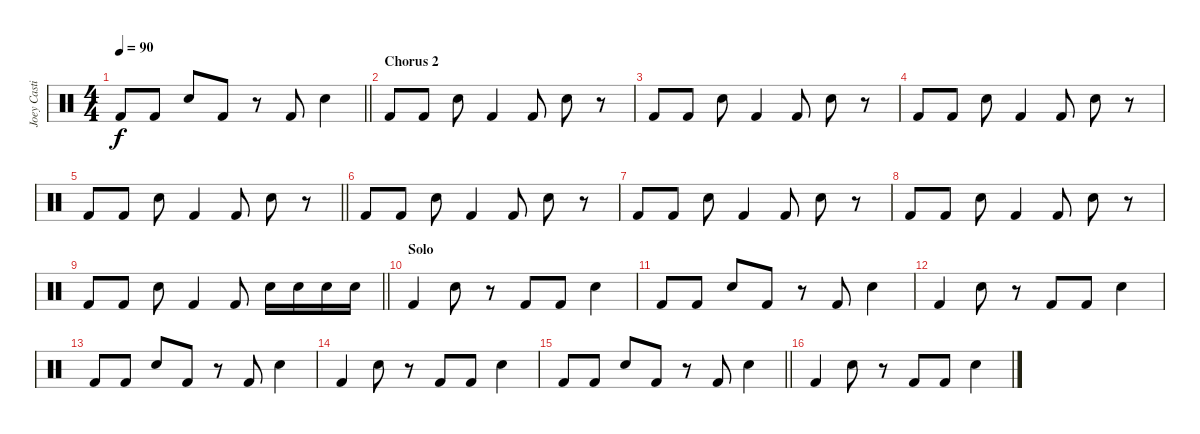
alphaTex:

\track ("Joey Castillo" "Joey Casti") {instrument percussion}
\staff {score}
\articulation defaults
\ts (4 4)
\tempo 90
\clef neutral
\barLineRight lightlight
\ks c "Kick (hit) 2".8{dy f} "Kick (hit) 2".8 "Electric Snare (hit)".8 "Kick (hit) 2".8
r.8 "Kick (hit) 2".8 "Electric Snare (hit)".4 |
\section ("" "Chorus 2")
"Kick (hit) 2".8 "Kick (hit) 2".8 "Electric Snare (hit)".8 "Kick (hit) 2".4 "Kick (hit) 2".8 "Electric Snare (hit)".8 r.8 |
"Kick (hit) 2".8 "Kick (hit) 2".8 "Electric Snare (hit)".8 "Kick (hit) 2".4 "Kick (hit) 2".8 "Electric Snare (hit)".8 r.8 |
"Kick (hit) 2".8 "Kick (hit) 2".8 "Electric Snare (hit)".8 "Kick (hit) 2".4 "Kick (hit) 2".8 "Electric Snare (hit)".8 r.8 |
\barLineRight lightlight "Kick (hit) 2".8 "Kick (hit) 2".8 "Electric Snare (hit)".8 "Kick (hit) 2".4 "Kick (hit) 2".8 "Electric Snare (hit)".8
r.8 |
"Kick (hit) 2".8 "Kick (hit) 2".8 "Electric Snare (hit)".8 "Kick (hit) 2".4 "Kick (hit) 2".8 "Electric Snare (hit)".8 r.8 |
"Kick (hit) 2".8 "Kick (hit) 2".8 "Electric Snare (hit)".8 "Kick (hit) 2".4 "Kick (hit) 2".8 "Electric Snare (hit)".8 r.8 |
"Kick (hit) 2".8 "Kick (hit) 2".8 "Electric Snare (hit)".8 "Kick (hit) 2".4 "Kick (hit) 2".8 "Electric Snare (hit)".8 r.8 |
\barLineRight lightlight "Kick (hit) 2".8 "Kick (hit) 2".8 "Electric Snare (hit)".8 "Kick (hit) 2".4 "Kick (hit) 2".8 "Electric Snare (hit)".16 "Electric Snare (hit)".16 "Electric Snare (hit)".16 "Electric Snare (hit)".16
|
\section ("" "Solo")
"Kick (hit) 2".4 "Electric Snare (hit)".8 r.8 "Kick (hit) 2".8 "Kick (hit) 2".8 "Electric Snare (hit)".4 |
"Kick (hit) 2".8 "Kick (hit) 2".8 "Electric Snare (hit)".8 "Kick (hit) 2".8 r.8 "Kick (hit) 2".8 "Electric Snare (hit)".4 |
"Kick (hit) 2".4 "Electric Snare (hit)".8 r.8 "Kick (hit) 2".8 "Kick (hit) 2".8 "Electric Snare (hit)".4 |
"Kick (hit) 2".8 "Kick (hit) 2".8 "Electric Snare (hit)".8 "Kick (hit) 2".8 r.8 "Kick (hit) 2".8 "Electric Snare (hit)".4 |
"Kick (hit) 2".4 "Electric Snare (hit)".8 r.8 "Kick (hit) 2".8 "Kick (hit) 2".8 "Electric Snare (hit)".4 |
\barLineRight lightlight "Kick (hit) 2".8 "Kick (hit) 2".8 "Electric Snare (hit)".8 "Kick (hit) 2".8
r.8 "Kick (hit) 2".8 "Electric Snare (hit)".4 |
"Kick (hit) 2".4 "Electric Snare (hit)".8 r.8 "Kick (hit) 2".8 "Kick (hit) 2".8 "Electric Snare (hit)".4
